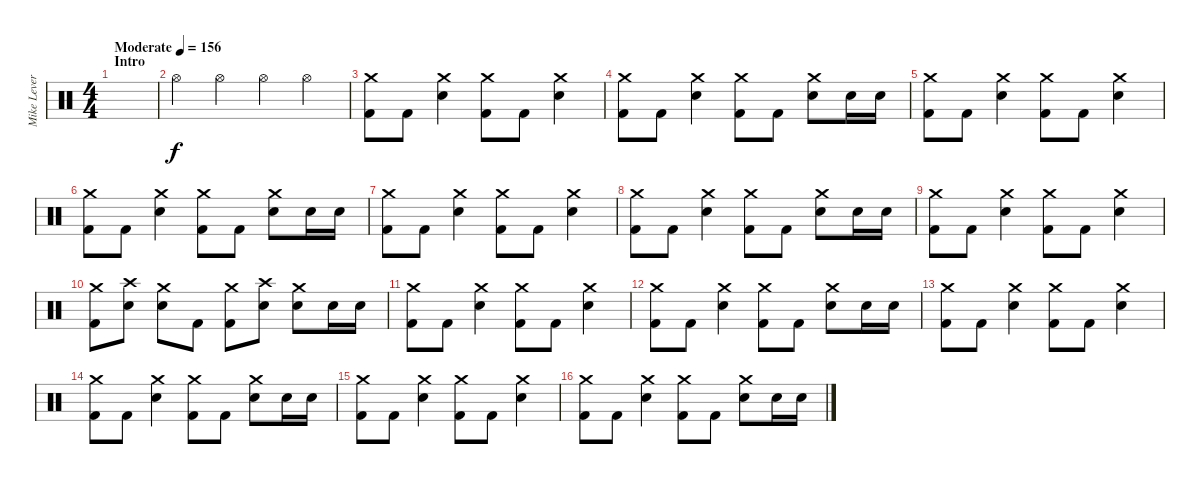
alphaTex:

\track ("Mike Leverence - Drums" "Mike Lever") {instrument percussion}
\staff {score}
\articulation defaults
\ts (4 4)
\section ("" "Intro")
\tempo (156 "Moderate")
\clef neutral
\ks c
|
"Hi-Hat (open)".4 "Hi-Hat (open)".4 "Hi-Hat (open)".4 "Hi-Hat (open)".4 |
("Crash medium (hit)" "Kick (hit) 2").8 "Kick (hit) 2".8 ("Crash medium (hit)" "Electric Snare (hit)").4 ("Crash medium (hit)" "Kick (hit) 2").8 "Kick (hit) 2".8 ("Crash medium (hit)" "Electric Snare (hit)").4 |
("Crash medium (hit)" "Kick (hit) 2").8 "Kick (hit) 2".8 ("Crash medium (hit)" "Electric Snare (hit)").4 ("Crash medium (hit)" "Kick (hit) 2").8 "Kick (hit) 2".8 ("Crash medium (hit)" "Electric Snare (hit)").8 "Electric Snare (hit)".16 "Electric Snare (hit)".16 |
("Crash medium (hit)" "Kick (hit) 2").8 "Kick (hit) 2".8 ("Crash medium (hit)" "Electric Snare (hit)").4 ("Crash medium (hit)" "Kick (hit) 2").8 "Kick (hit) 2".8 ("Crash medium (hit)" "Electric Snare (hit)").4 |
("Crash medium (hit)" "Kick (hit) 2").8 "Kick (hit) 2".8 ("Crash medium (hit)" "Electric Snare (hit)").4 ("Crash medium (hit)" "Kick (hit) 2").8 "Kick (hit) 2".8 ("Crash medium (hit)" "Electric Snare (hit)").8 "Electric Snare (hit)".16 "Electric Snare (hit)".16 |
("Crash medium (hit)" "Kick (hit) 2").8 "Kick (hit) 2".8 ("Crash medium (hit)" "Electric Snare (hit)").4 ("Crash medium (hit)" "Kick (hit) 2").8 "Kick (hit) 2".8 ("Crash medium (hit)" "Electric Snare (hit)").4 |
("Crash medium (hit)" "Kick (hit) 2").8 "Kick (hit) 2".8 ("Crash medium (hit)" "Electric Snare (hit)").4 ("Crash medium (hit)" "Kick (hit) 2").8 "Kick (hit) 2".8 ("Crash medium (hit)" "Electric Snare (hit)").8 "Electric Snare (hit)".16 "Electric Snare (hit)".16 |
("Crash medium (hit)" "Kick (hit) 2").8 "Kick (hit) 2".8 ("Crash medium (hit)" "Electric Snare (hit)").4 ("Crash medium (hit)" "Kick (hit) 2").8 "Kick (hit) 2".8 ("Crash medium (hit)" "Electric Snare (hit)").4 |
("Crash medium (hit)" "Kick (hit) 2").8 ("Crash high (hit)" "Electric Snare (hit)").8 ("Crash medium (hit)" "Electric Snare (hit)").8 "Kick (hit) 2".8 ("Crash medium (hit)" "Kick (hit) 2").8 ("Crash high (hit)" "Electric Snare (hit)").8 ("Crash medium (hit)" "Electric Snare (hit)").8 "Electric Snare (hit)".16 "Electric Snare (hit)".16 |
("Crash medium (hit)" "Kick (hit) 2").8 "Kick (hit) 2".8 ("Crash medium (hit)" "Electric Snare (hit)").4 ("Crash medium (hit)" "Kick (hit) 2").8 "Kick (hit) 2".8 ("Crash medium (hit)" "Electric Snare (hit)").4 |
("Crash medium (hit)" "Kick (hit) 2").8 "Kick (hit) 2".8 ("Crash medium (hit)" "Electric Snare (hit)").4 ("Crash medium (hit)" "Kick (hit) 2").8 "Kick (hit) 2".8 ("Crash medium (hit)" "Electric Snare (hit)").8 "Electric Snare (hit)".16 "Electric Snare (hit)".16 |
("Crash medium (hit)" "Kick (hit) 2").8 "Kick (hit) 2".8 ("Crash medium (hit)" "Electric Snare (hit)").4 ("Crash medium (hit)" "Kick (hit) 2").8 "Kick (hit) 2".8 ("Crash medium (hit)" "Electric Snare (hit)").4 |
("Crash medium (hit)" "Kick (hit) 2").8 "Kick (hit) 2".8 ("Crash medium (hit)" "Electric Snare (hit)").4 ("Crash medium (hit)" "Kick (hit) 2").8 "Kick (hit) 2".8 ("Crash medium (hit)" "Electric Snare (hit)").8 "Electric Snare (hit)".16 "Electric Snare (hit)".16 |
("Crash medium (hit)" "Kick (hit) 2").8 "Kick (hit) 2".8 ("Crash medium (hit)" "Electric Snare (hit)").4 ("Crash medium (hit)" "Kick (hit) 2").8 "Kick (hit) 2".8 ("Crash medium (hit)" "Electric Snare (hit)").4 |
("Crash medium (hit)" "Kick (hit) 2").8 "Kick (hit) 2".8 ("Crash medium (hit)" "Electric Snare (hit)").4 ("Crash medium (hit)" "Kick (hit) 2").8 "Kick (hit) 2".8 ("Crash medium (hit)" "Electric Snare (hit)").8 "Electric Snare (hit)".16 "Electric Snare (hit)".16
